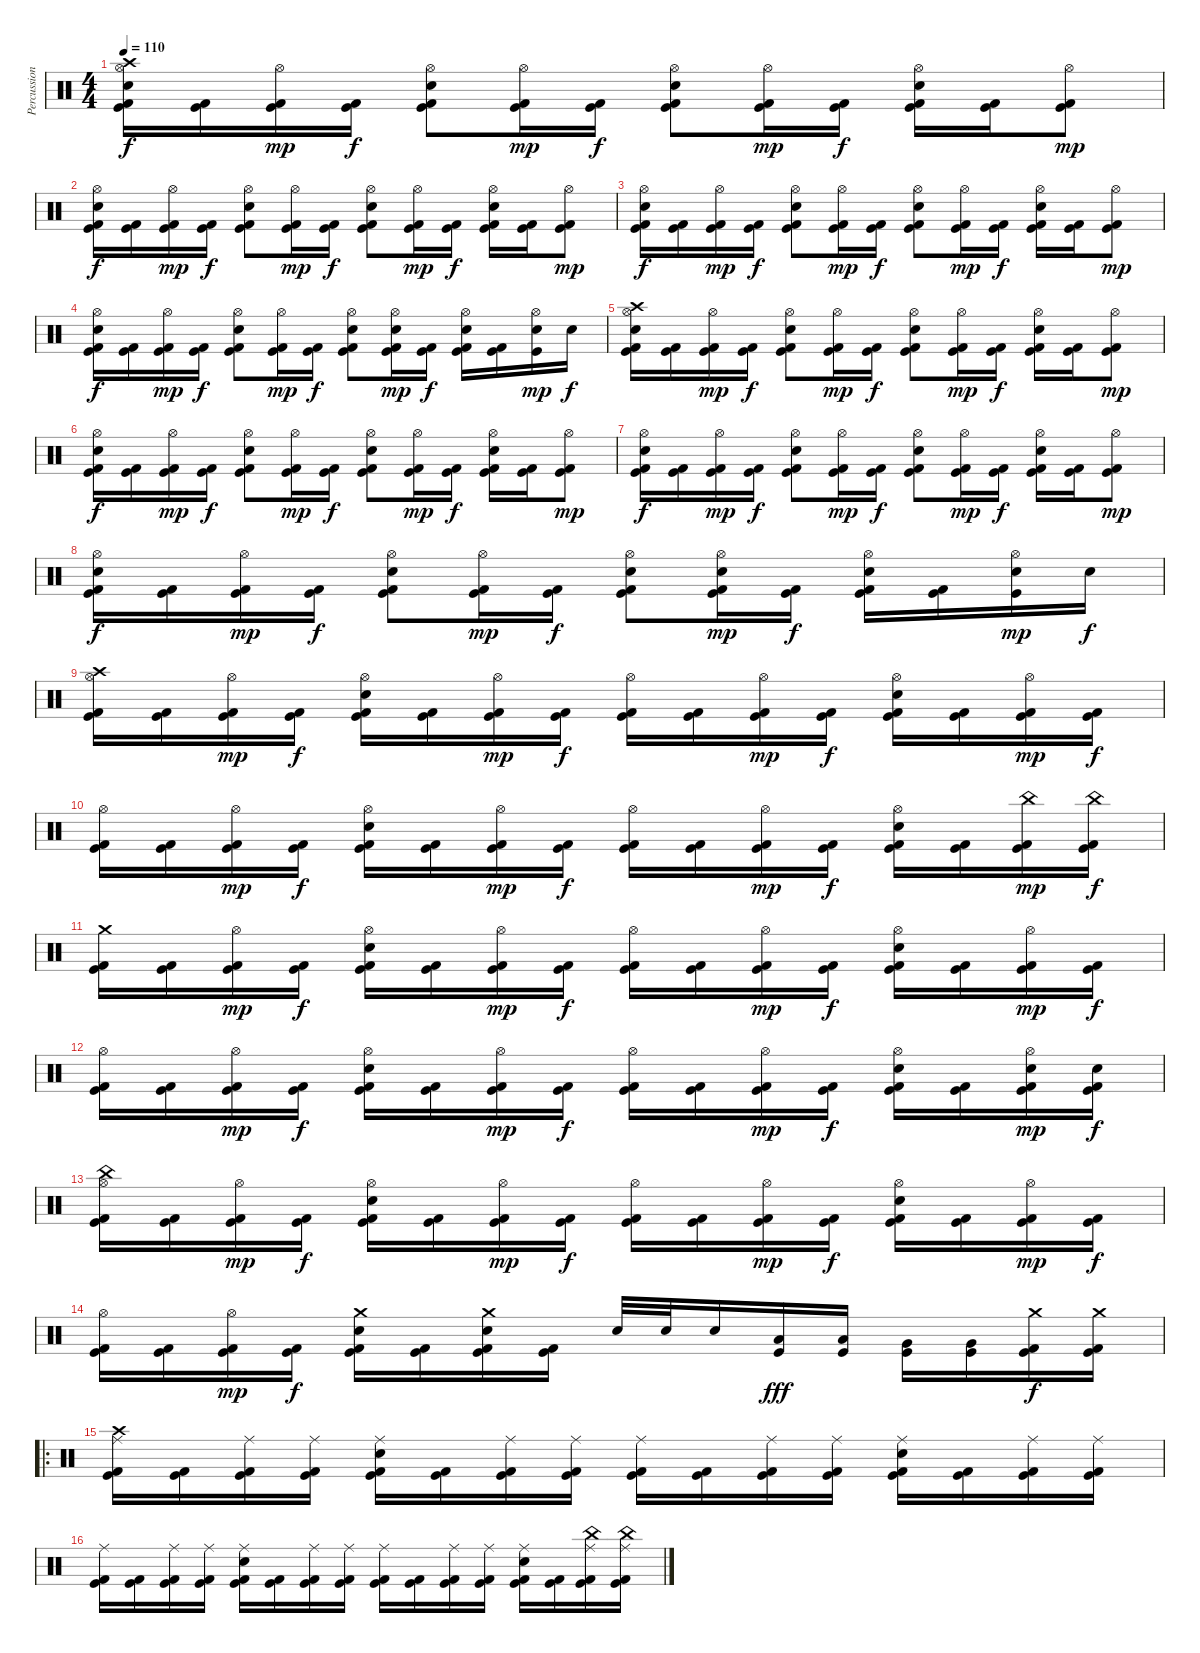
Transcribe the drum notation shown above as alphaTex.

\track ("Percussion" "Percussion") {instrument percussion}
\staff {score}
\articulation defaults
\ts (4 4)
\tempo 110
\clef neutral
\ks c
("Hi-Hat (open)" "Crash high (hit)" "Snare (hit) 2" "Kick (hit) 2" "Kick (hit)").16{dy f} ("Kick (hit) 2" "Kick (hit)").16 ("Hi-Hat (open)" "Kick (hit) 2" "Kick (hit)").16{dy mp} ("Kick (hit) 2" "Kick (hit)").16{dy f} ("Hi-Hat (open)" "Snare (hit) 2" "Kick (hit) 2" "Kick (hit)").8 ("Hi-Hat (open)" "Kick (hit) 2" "Kick (hit)").16{dy mp} ("Kick (hit) 2" "Kick (hit)").16{dy f} ("Hi-Hat (open)" "Snare (hit) 2" "Kick (hit) 2" "Kick (hit)").8 ("Hi-Hat (open)" "Kick (hit) 2" "Kick (hit)").16{dy mp} ("Kick (hit) 2" "Kick (hit)").16{dy f} ("Hi-Hat (open)" "Snare (hit) 2" "Kick (hit) 2" "Kick (hit)").16 ("Kick (hit) 2" "Kick (hit)").16 ("Hi-Hat (open)" "Kick (hit) 2" "Kick (hit)").8{dy mp} |
("Hi-Hat (open)" "Snare (hit) 2" "Kick (hit) 2" "Kick (hit)").16{dy f} ("Kick (hit) 2" "Kick (hit)").16 ("Hi-Hat (open)" "Kick (hit) 2" "Kick (hit)").16{dy mp} ("Kick (hit) 2" "Kick (hit)").16{dy f} ("Hi-Hat (open)" "Snare (hit) 2" "Kick (hit) 2" "Kick (hit)").8 ("Hi-Hat (open)" "Kick (hit) 2" "Kick (hit)").16{dy mp} ("Kick (hit) 2" "Kick (hit)").16{dy f} ("Hi-Hat (open)" "Snare (hit) 2" "Kick (hit) 2" "Kick (hit)").8 ("Hi-Hat (open)" "Kick (hit) 2" "Kick (hit)").16{dy mp} ("Kick (hit) 2" "Kick (hit)").16{dy f} ("Hi-Hat (open)" "Snare (hit) 2" "Kick (hit) 2" "Kick (hit)").16 ("Kick (hit) 2" "Kick (hit)").16 ("Hi-Hat (open)" "Kick (hit) 2" "Kick (hit)").8{dy mp} |
("Hi-Hat (open)" "Snare (hit) 2" "Kick (hit) 2" "Kick (hit)").16{dy f} ("Kick (hit) 2" "Kick (hit)").16 ("Hi-Hat (open)" "Kick (hit) 2" "Kick (hit)").16{dy mp} ("Kick (hit) 2" "Kick (hit)").16{dy f} ("Hi-Hat (open)" "Snare (hit) 2" "Kick (hit) 2" "Kick (hit)").8 ("Hi-Hat (open)" "Kick (hit) 2" "Kick (hit)").16{dy mp} ("Kick (hit) 2" "Kick (hit)").16{dy f} ("Hi-Hat (open)" "Snare (hit) 2" "Kick (hit) 2" "Kick (hit)").8 ("Hi-Hat (open)" "Kick (hit) 2" "Kick (hit)").16{dy mp} ("Kick (hit) 2" "Kick (hit)").16{dy f} ("Hi-Hat (open)" "Snare (hit) 2" "Kick (hit) 2" "Kick (hit)").16 ("Kick (hit) 2" "Kick (hit)").16 ("Hi-Hat (open)" "Kick (hit) 2" "Kick (hit)").8{dy mp} |
("Hi-Hat (open)" "Snare (hit) 2" "Kick (hit) 2" "Kick (hit)").16{dy f} ("Kick (hit) 2" "Kick (hit)").16 ("Hi-Hat (open)" "Kick (hit) 2" "Kick (hit)").16{dy mp} ("Kick (hit) 2" "Kick (hit)").16{dy f} ("Hi-Hat (open)" "Snare (hit) 2" "Kick (hit) 2" "Kick (hit)").8 ("Hi-Hat (open)" "Kick (hit) 2" "Kick (hit)").16{dy mp} ("Kick (hit) 2" "Kick (hit)").16{dy f} ("Hi-Hat (open)" "Snare (hit) 2" "Kick (hit) 2" "Kick (hit)").8 ("Hi-Hat (open)" "Snare (hit) 2" "Kick (hit) 2" "Kick (hit)").16{dy mp} ("Kick (hit) 2" "Kick (hit)").16{dy f} ("Hi-Hat (open)" "Snare (hit) 2" "Kick (hit) 2" "Kick (hit)").16 ("Kick (hit) 2" "Kick (hit)").16 ("Hi-Hat (open)" "Snare (hit) 2" "Kick (hit)").16{dy mp} "Snare (hit) 2".16{dy f} |
("Hi-Hat (open)" "Crash high (hit)" "Snare (hit) 2" "Kick (hit) 2" "Kick (hit)").16 ("Kick (hit) 2" "Kick (hit)").16 ("Hi-Hat (open)" "Kick (hit) 2" "Kick (hit)").16{dy mp} ("Kick (hit) 2" "Kick (hit)").16{dy f} ("Hi-Hat (open)" "Snare (hit) 2" "Kick (hit) 2" "Kick (hit)").8 ("Hi-Hat (open)" "Kick (hit) 2" "Kick (hit)").16{dy mp} ("Kick (hit) 2" "Kick (hit)").16{dy f} ("Hi-Hat (open)" "Snare (hit) 2" "Kick (hit) 2" "Kick (hit)").8 ("Hi-Hat (open)" "Kick (hit) 2" "Kick (hit)").16{dy mp} ("Kick (hit) 2" "Kick (hit)").16{dy f} ("Hi-Hat (open)" "Snare (hit) 2" "Kick (hit) 2" "Kick (hit)").16 ("Kick (hit) 2" "Kick (hit)").16 ("Hi-Hat (open)" "Kick (hit) 2" "Kick (hit)").8{dy mp} |
("Hi-Hat (open)" "Snare (hit) 2" "Kick (hit) 2" "Kick (hit)").16{dy f} ("Kick (hit) 2" "Kick (hit)").16 ("Hi-Hat (open)" "Kick (hit) 2" "Kick (hit)").16{dy mp} ("Kick (hit) 2" "Kick (hit)").16{dy f} ("Hi-Hat (open)" "Snare (hit) 2" "Kick (hit) 2" "Kick (hit)").8 ("Hi-Hat (open)" "Kick (hit) 2" "Kick (hit)").16{dy mp} ("Kick (hit) 2" "Kick (hit)").16{dy f} ("Hi-Hat (open)" "Snare (hit) 2" "Kick (hit) 2" "Kick (hit)").8 ("Hi-Hat (open)" "Kick (hit) 2" "Kick (hit)").16{dy mp} ("Kick (hit) 2" "Kick (hit)").16{dy f} ("Hi-Hat (open)" "Snare (hit) 2" "Kick (hit) 2" "Kick (hit)").16 ("Kick (hit) 2" "Kick (hit)").16 ("Hi-Hat (open)" "Kick (hit) 2" "Kick (hit)").8{dy mp} |
("Hi-Hat (open)" "Snare (hit) 2" "Kick (hit) 2" "Kick (hit)").16{dy f} ("Kick (hit) 2" "Kick (hit)").16 ("Hi-Hat (open)" "Kick (hit) 2" "Kick (hit)").16{dy mp} ("Kick (hit) 2" "Kick (hit)").16{dy f} ("Hi-Hat (open)" "Snare (hit) 2" "Kick (hit) 2" "Kick (hit)").8 ("Hi-Hat (open)" "Kick (hit) 2" "Kick (hit)").16{dy mp} ("Kick (hit) 2" "Kick (hit)").16{dy f} ("Hi-Hat (open)" "Snare (hit) 2" "Kick (hit) 2" "Kick (hit)").8 ("Hi-Hat (open)" "Kick (hit) 2" "Kick (hit)").16{dy mp} ("Kick (hit) 2" "Kick (hit)").16{dy f} ("Hi-Hat (open)" "Snare (hit) 2" "Kick (hit) 2" "Kick (hit)").16 ("Kick (hit) 2" "Kick (hit)").16 ("Hi-Hat (open)" "Kick (hit) 2" "Kick (hit)").8{dy mp} |
("Hi-Hat (open)" "Snare (hit) 2" "Kick (hit) 2" "Kick (hit)").16{dy f} ("Kick (hit) 2" "Kick (hit)").16 ("Hi-Hat (open)" "Kick (hit) 2" "Kick (hit)").16{dy mp} ("Kick (hit) 2" "Kick (hit)").16{dy f} ("Hi-Hat (open)" "Snare (hit) 2" "Kick (hit) 2" "Kick (hit)").8 ("Hi-Hat (open)" "Kick (hit) 2" "Kick (hit)").16{dy mp} ("Kick (hit) 2" "Kick (hit)").16{dy f} ("Hi-Hat (open)" "Snare (hit) 2" "Kick (hit) 2" "Kick (hit)").8 ("Hi-Hat (open)" "Snare (hit) 2" "Kick (hit) 2" "Kick (hit)").16{dy mp} ("Kick (hit) 2" "Kick (hit)").16{dy f} ("Hi-Hat (open)" "Snare (hit) 2" "Kick (hit) 2" "Kick (hit)").16 ("Kick (hit) 2" "Kick (hit)").16 ("Hi-Hat (open)" "Snare (hit) 2" "Kick (hit)").16{dy mp} "Snare (hit) 2".16{dy f} |
("Hi-Hat (open)" "Crash high (hit)" "Kick (hit) 2" "Kick (hit)").16 ("Kick (hit) 2" "Kick (hit)").16 ("Hi-Hat (open)" "Kick (hit) 2" "Kick (hit)").16{dy mp} ("Kick (hit) 2" "Kick (hit)").16{dy f} ("Hi-Hat (open)" "Snare (hit) 2" "Kick (hit) 2" "Kick (hit)").16 ("Kick (hit) 2" "Kick (hit)").16 ("Hi-Hat (open)" "Kick (hit) 2" "Kick (hit)").16{dy mp} ("Kick (hit) 2" "Kick (hit)").16{dy f} ("Hi-Hat (open)" "Kick (hit) 2" "Kick (hit)").16 ("Kick (hit) 2" "Kick (hit)").16 ("Hi-Hat (open)" "Kick (hit) 2" "Kick (hit)").16{dy mp} ("Kick (hit) 2" "Kick (hit)").16{dy f} ("Hi-Hat (open)" "Snare (hit) 2" "Kick (hit) 2" "Kick (hit)").16 ("Kick (hit) 2" "Kick (hit)").16 ("Hi-Hat (open)" "Kick (hit) 2" "Kick (hit)").16{dy mp} ("Kick (hit) 2" "Kick (hit)").16{dy f} |
("Hi-Hat (open)" "Kick (hit) 2" "Kick (hit)").16 ("Kick (hit) 2" "Kick (hit)").16 ("Hi-Hat (open)" "Kick (hit) 2" "Kick (hit)").16{dy mp} ("Kick (hit) 2" "Kick (hit)").16{dy f} ("Hi-Hat (open)" "Snare (hit) 2" "Kick (hit) 2" "Kick (hit)").16 ("Kick (hit) 2" "Kick (hit)").16 ("Hi-Hat (open)" "Kick (hit) 2" "Kick (hit)").16{dy mp} ("Kick (hit) 2" "Kick (hit)").16{dy f} ("Hi-Hat (open)" "Kick (hit) 2" "Kick (hit)").16 ("Kick (hit) 2" "Kick (hit)").16 ("Hi-Hat (open)" "Kick (hit) 2" "Kick (hit)").16{dy mp} ("Kick (hit) 2" "Kick (hit)").16{dy f} ("Hi-Hat (open)" "Snare (hit) 2" "Kick (hit) 2" "Kick (hit)").16 ("Kick (hit) 2" "Kick (hit)").16 ("China (hit)" "Kick (hit) 2" "Kick (hit)").16{dy mp} ("China (hit)" "Kick (hit) 2" "Kick (hit)").16{dy f} |
("Crash medium (hit)" "Kick (hit) 2" "Kick (hit)").16 ("Kick (hit) 2" "Kick (hit)").16 ("Hi-Hat (open)" "Kick (hit) 2" "Kick (hit)").16{dy mp} ("Kick (hit) 2" "Kick (hit)").16{dy f} ("Hi-Hat (open)" "Snare (hit) 2" "Kick (hit) 2" "Kick (hit)").16 ("Kick (hit) 2" "Kick (hit)").16 ("Hi-Hat (open)" "Kick (hit) 2" "Kick (hit)").16{dy mp} ("Kick (hit) 2" "Kick (hit)").16{dy f} ("Hi-Hat (open)" "Kick (hit) 2" "Kick (hit)").16 ("Kick (hit) 2" "Kick (hit)").16 ("Hi-Hat (open)" "Kick (hit) 2" "Kick (hit)").16{dy mp} ("Kick (hit) 2" "Kick (hit)").16{dy f} ("Hi-Hat (open)" "Snare (hit) 2" "Kick (hit) 2" "Kick (hit)").16 ("Kick (hit) 2" "Kick (hit)").16 ("Hi-Hat (open)" "Kick (hit) 2" "Kick (hit)").16{dy mp} ("Kick (hit) 2" "Kick (hit)").16{dy f} |
("Hi-Hat (open)" "Kick (hit) 2" "Kick (hit)").16 ("Kick (hit) 2" "Kick (hit)").16 ("Hi-Hat (open)" "Kick (hit) 2" "Kick (hit)").16{dy mp} ("Kick (hit) 2" "Kick (hit)").16{dy f} ("Hi-Hat (open)" "Snare (hit) 2" "Kick (hit) 2" "Kick (hit)").16 ("Kick (hit) 2" "Kick (hit)").16 ("Hi-Hat (open)" "Kick (hit) 2" "Kick (hit)").16{dy mp} ("Kick (hit) 2" "Kick (hit)").16{dy f} ("Hi-Hat (open)" "Kick (hit) 2" "Kick (hit)").16 ("Kick (hit) 2" "Kick (hit)").16 ("Hi-Hat (open)" "Kick (hit) 2" "Kick (hit)").16{dy mp} ("Kick (hit) 2" "Kick (hit)").16{dy f} ("Hi-Hat (open)" "Snare (hit) 2" "Kick (hit) 2" "Kick (hit)").16 ("Kick (hit) 2" "Kick (hit)").16 ("Hi-Hat (open)" "Snare (hit) 2" "Kick (hit) 2" "Kick (hit)").16{dy mp} ("Snare (hit) 2" "Kick (hit) 2" "Kick (hit)").16{dy f} |
("Hi-Hat (open)" "China (hit)" "Kick (hit) 2" "Kick (hit)").16 ("Kick (hit) 2" "Kick (hit)").16 ("Hi-Hat (open)" "Kick (hit) 2" "Kick (hit)").16{dy mp} ("Kick (hit) 2" "Kick (hit)").16{dy f} ("Hi-Hat (open)" "Snare (hit) 2" "Kick (hit) 2" "Kick (hit)").16 ("Kick (hit) 2" "Kick (hit)").16 ("Hi-Hat (open)" "Kick (hit) 2" "Kick (hit)").16{dy mp} ("Kick (hit) 2" "Kick (hit)").16{dy f} ("Hi-Hat (open)" "Kick (hit) 2" "Kick (hit)").16 ("Kick (hit) 2" "Kick (hit)").16 ("Hi-Hat (open)" "Kick (hit) 2" "Kick (hit)").16{dy mp} ("Kick (hit) 2" "Kick (hit)").16{dy f} ("Hi-Hat (open)" "Snare (hit) 2" "Kick (hit) 2" "Kick (hit)").16 ("Kick (hit) 2" "Kick (hit)").16 ("Hi-Hat (open)" "Kick (hit) 2" "Kick (hit)").16{dy mp} ("Kick (hit) 2" "Kick (hit)").16{dy f} |
("Hi-Hat (open)" "Kick (hit) 2" "Kick (hit)").16 ("Kick (hit) 2" "Kick (hit)").16 ("Hi-Hat (open)" "Kick (hit) 2" "Kick (hit)").16{dy mp} ("Kick (hit) 2" "Kick (hit)").16{dy f} ("Crash medium (hit)" "Snare (hit) 2" "Kick (hit) 2" "Kick (hit)").16 ("Kick (hit) 2" "Kick (hit)").16 ("Crash medium (hit)" "Snare (hit) 2" "Kick (hit) 2" "Kick (hit)").16 ("Kick (hit) 2" "Kick (hit)").16 "Snare (hit) 2".32 "Snare (hit) 2".32 "Snare (hit) 2".16 ("Low Tom (hit)" "Kick (hit)").16{dy fff} ("Low Tom (hit)" "Kick (hit)").16 ("Very Low Tom (hit)" "Kick (hit)").16 ("Very Low Tom (hit)" "Kick (hit)").16 ("Crash medium (hit)" "Kick (hit) 2" "Kick (hit)").16{dy f} ("Crash medium (hit)" "Kick (hit) 2" "Kick (hit)").16 |
\ro
("Ride (middle)" "Crash high (hit)" "Kick (hit) 2" "Kick (hit)").16 ("Kick (hit) 2" "Kick (hit)").16 ("Ride (middle)" "Kick (hit) 2" "Kick (hit)").16 ("Ride (middle)" "Kick (hit) 2" "Kick (hit)").16 ("Ride (middle)" "Snare (hit) 2" "Kick (hit) 2" "Kick (hit)").16 ("Kick (hit) 2" "Kick (hit)").16 ("Ride (middle)" "Kick (hit) 2" "Kick (hit)").16 ("Ride (middle)" "Kick (hit) 2" "Kick (hit)").16 ("Ride (middle)" "Kick (hit) 2" "Kick (hit)").16 ("Kick (hit) 2" "Kick (hit)").16 ("Ride (middle)" "Kick (hit) 2" "Kick (hit)").16 ("Ride (middle)" "Kick (hit) 2" "Kick (hit)").16 ("Ride (middle)" "Snare (hit) 2" "Kick (hit) 2" "Kick (hit)").16 ("Kick (hit) 2" "Kick (hit)").16 ("Ride (middle)" "Kick (hit) 2" "Kick (hit)").16 ("Ride (middle)" "Kick (hit) 2" "Kick (hit)").16 |
("Ride (middle)" "Kick (hit) 2" "Kick (hit)").16 ("Kick (hit) 2" "Kick (hit)").16 ("Ride (middle)" "Kick (hit) 2" "Kick (hit)").16 ("Ride (middle)" "Kick (hit) 2" "Kick (hit)").16 ("Ride (middle)" "Snare (hit) 2" "Kick (hit) 2" "Kick (hit)").16 ("Kick (hit) 2" "Kick (hit)").16 ("Ride (middle)" "Kick (hit) 2" "Kick (hit)").16 ("Ride (middle)" "Kick (hit) 2" "Kick (hit)").16 ("Ride (middle)" "Kick (hit) 2" "Kick (hit)").16 ("Kick (hit) 2" "Kick (hit)").16 ("Ride (middle)" "Kick (hit) 2" "Kick (hit)").16 ("Ride (middle)" "Kick (hit) 2" "Kick (hit)").16 ("Ride (middle)" "Snare (hit) 2" "Kick (hit) 2" "Kick (hit)").16 ("Kick (hit) 2" "Kick (hit)").16 ("Ride (middle)" "China (hit)" "Kick (hit) 2" "Kick (hit)").16 ("Ride (middle)" "China (hit)" "Kick (hit) 2" "Kick (hit)").16
